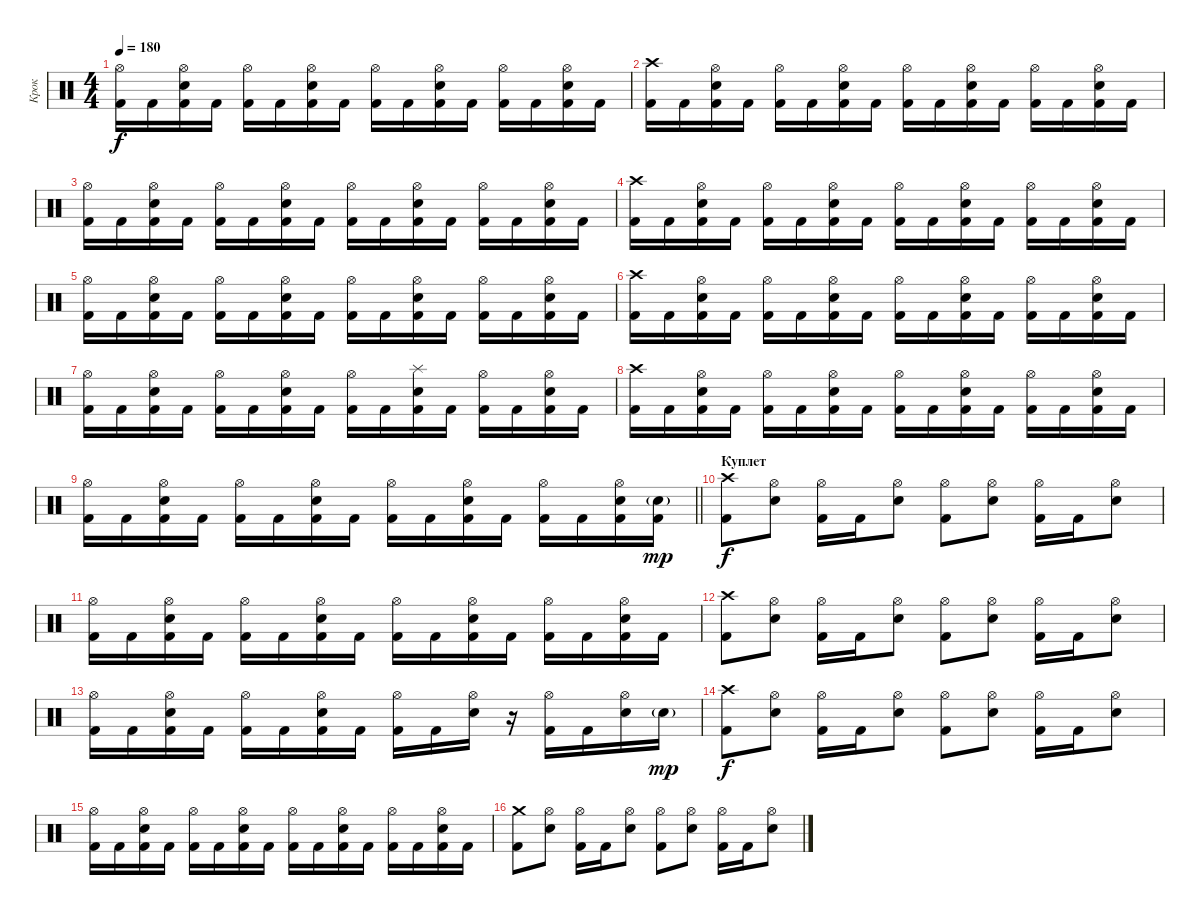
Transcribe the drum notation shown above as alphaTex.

\track ("Крок" "Крок") {instrument percussion}
\staff {score}
\articulation defaults
\ts (4 4)
\tempo 180
\clef neutral
\ks c
("Kick (hit) 2" "Hi-Hat (open)").16{dy f} "Kick (hit) 2".16 ("Kick (hit) 2" "Electric Snare (hit)" "Hi-Hat (open)").16 "Kick (hit) 2".16 ("Kick (hit) 2" "Hi-Hat (open)").16 "Kick (hit) 2".16 ("Kick (hit) 2" "Electric Snare (hit)" "Hi-Hat (open)").16 "Kick (hit) 2".16 ("Kick (hit) 2" "Hi-Hat (open)").16 "Kick (hit) 2".16 ("Kick (hit) 2" "Electric Snare (hit)" "Hi-Hat (open)").16 "Kick (hit) 2".16 ("Kick (hit) 2" "Hi-Hat (open)").16 "Kick (hit) 2".16 ("Kick (hit) 2" "Electric Snare (hit)" "Hi-Hat (open)").16 "Kick (hit) 2".16 |
("Kick (hit) 2" "Crash high (hit)").16 "Kick (hit) 2".16 ("Kick (hit) 2" "Electric Snare (hit)" "Hi-Hat (open)").16 "Kick (hit) 2".16 ("Kick (hit) 2" "Hi-Hat (open)").16 "Kick (hit) 2".16 ("Kick (hit) 2" "Electric Snare (hit)" "Hi-Hat (open)").16 "Kick (hit) 2".16 ("Kick (hit) 2" "Hi-Hat (open)").16 "Kick (hit) 2".16 ("Kick (hit) 2" "Electric Snare (hit)" "Hi-Hat (open)").16 "Kick (hit) 2".16 ("Kick (hit) 2" "Hi-Hat (open)").16 "Kick (hit) 2".16 ("Kick (hit) 2" "Electric Snare (hit)" "Hi-Hat (open)").16 "Kick (hit) 2".16 |
("Kick (hit) 2" "Hi-Hat (open)").16 "Kick (hit) 2".16 ("Kick (hit) 2" "Electric Snare (hit)" "Hi-Hat (open)").16 "Kick (hit) 2".16 ("Kick (hit) 2" "Hi-Hat (open)").16 "Kick (hit) 2".16 ("Kick (hit) 2" "Electric Snare (hit)" "Hi-Hat (open)").16 "Kick (hit) 2".16 ("Kick (hit) 2" "Hi-Hat (open)").16 "Kick (hit) 2".16 ("Kick (hit) 2" "Electric Snare (hit)" "Hi-Hat (open)").16 "Kick (hit) 2".16 ("Kick (hit) 2" "Hi-Hat (open)").16 "Kick (hit) 2".16 ("Kick (hit) 2" "Electric Snare (hit)" "Hi-Hat (open)").16 "Kick (hit) 2".16 |
("Kick (hit) 2" "Crash high (hit)").16 "Kick (hit) 2".16 ("Kick (hit) 2" "Electric Snare (hit)" "Hi-Hat (open)").16 "Kick (hit) 2".16 ("Kick (hit) 2" "Hi-Hat (open)").16 "Kick (hit) 2".16 ("Kick (hit) 2" "Electric Snare (hit)" "Hi-Hat (open)").16 "Kick (hit) 2".16 ("Kick (hit) 2" "Hi-Hat (open)").16 "Kick (hit) 2".16 ("Kick (hit) 2" "Electric Snare (hit)" "Hi-Hat (open)").16 "Kick (hit) 2".16 ("Kick (hit) 2" "Hi-Hat (open)").16 "Kick (hit) 2".16 ("Kick (hit) 2" "Electric Snare (hit)" "Hi-Hat (open)").16 "Kick (hit) 2".16 |
("Kick (hit) 2" "Hi-Hat (open)").16 "Kick (hit) 2".16 ("Kick (hit) 2" "Electric Snare (hit)" "Hi-Hat (open)").16 "Kick (hit) 2".16 ("Kick (hit) 2" "Hi-Hat (open)").16 "Kick (hit) 2".16 ("Kick (hit) 2" "Electric Snare (hit)" "Hi-Hat (open)").16 "Kick (hit) 2".16 ("Kick (hit) 2" "Hi-Hat (open)").16 "Kick (hit) 2".16 ("Kick (hit) 2" "Electric Snare (hit)" "Hi-Hat (open)").16 "Kick (hit) 2".16 ("Kick (hit) 2" "Hi-Hat (open)").16 "Kick (hit) 2".16 ("Kick (hit) 2" "Electric Snare (hit)" "Hi-Hat (open)").16 "Kick (hit) 2".16 |
("Kick (hit) 2" "Crash high (hit)").16 "Kick (hit) 2".16 ("Kick (hit) 2" "Electric Snare (hit)" "Hi-Hat (open)").16 "Kick (hit) 2".16 ("Kick (hit) 2" "Hi-Hat (open)").16 "Kick (hit) 2".16 ("Kick (hit) 2" "Electric Snare (hit)" "Hi-Hat (open)").16 "Kick (hit) 2".16 ("Kick (hit) 2" "Hi-Hat (open)").16 "Kick (hit) 2".16 ("Kick (hit) 2" "Electric Snare (hit)" "Hi-Hat (open)").16 "Kick (hit) 2".16 ("Kick (hit) 2" "Hi-Hat (open)").16 "Kick (hit) 2".16 ("Kick (hit) 2" "Electric Snare (hit)" "Hi-Hat (open)").16 "Kick (hit) 2".16 |
("Kick (hit) 2" "Hi-Hat (open)").16 "Kick (hit) 2".16 ("Kick (hit) 2" "Electric Snare (hit)" "Hi-Hat (open)").16 "Kick (hit) 2".16 ("Kick (hit) 2" "Hi-Hat (open)").16 "Kick (hit) 2".16 ("Kick (hit) 2" "Electric Snare (hit)" "Hi-Hat (open)").16 "Kick (hit) 2".16 ("Kick (hit) 2" "Hi-Hat (open)").16 "Kick (hit) 2".16 ("Kick (hit) 2" "Electric Snare (hit)" "Splash (hit)").16 "Kick (hit) 2".16 ("Kick (hit) 2" "Hi-Hat (open)").16 "Kick (hit) 2".16 ("Kick (hit) 2" "Electric Snare (hit)" "Hi-Hat (open)").16 "Kick (hit) 2".16 |
("Kick (hit) 2" "Crash high (hit)").16 "Kick (hit) 2".16 ("Kick (hit) 2" "Electric Snare (hit)" "Hi-Hat (open)").16 "Kick (hit) 2".16 ("Kick (hit) 2" "Hi-Hat (open)").16 "Kick (hit) 2".16 ("Kick (hit) 2" "Electric Snare (hit)" "Hi-Hat (open)").16 "Kick (hit) 2".16 ("Kick (hit) 2" "Hi-Hat (open)").16 "Kick (hit) 2".16 ("Kick (hit) 2" "Electric Snare (hit)" "Hi-Hat (open)").16 "Kick (hit) 2".16 ("Kick (hit) 2" "Hi-Hat (open)").16 "Kick (hit) 2".16 ("Kick (hit) 2" "Electric Snare (hit)" "Hi-Hat (open)").16 "Kick (hit) 2".16 |
\barLineRight lightlight
("Kick (hit) 2" "Hi-Hat (open)").16 "Kick (hit) 2".16 ("Kick (hit) 2" "Electric Snare (hit)" "Hi-Hat (open)").16 "Kick (hit) 2".16 ("Kick (hit) 2" "Hi-Hat (open)").16 "Kick (hit) 2".16 ("Kick (hit) 2" "Electric Snare (hit)" "Hi-Hat (open)").16 "Kick (hit) 2".16 ("Kick (hit) 2" "Hi-Hat (open)").16 "Kick (hit) 2".16 ("Kick (hit) 2" "Electric Snare (hit)" "Hi-Hat (open)").16 "Kick (hit) 2".16 ("Kick (hit) 2" "Hi-Hat (open)").16 "Kick (hit) 2".16 ("Kick (hit) 2" "Electric Snare (hit)" "Hi-Hat (open)").16 ("Kick (hit) 2" "Electric Snare (hit)"{g}).16{dy mp} |
\section ("" "Куплет")
("Kick (hit) 2" "Crash high (hit)").8{dy f} ("Electric Snare (hit)" "Hi-Hat (open)").8 ("Kick (hit) 2" "Hi-Hat (open)").16 "Kick (hit) 2".16 ("Electric Snare (hit)" "Hi-Hat (open)").8 ("Kick (hit) 2" "Hi-Hat (open)").8 ("Electric Snare (hit)" "Hi-Hat (open)").8 ("Kick (hit) 2" "Hi-Hat (open)").16 "Kick (hit) 2".16 ("Electric Snare (hit)" "Hi-Hat (open)").8 |
("Kick (hit) 2" "Hi-Hat (open)").16 "Kick (hit) 2".16 ("Kick (hit) 2" "Electric Snare (hit)" "Hi-Hat (open)").16 "Kick (hit) 2".16 ("Kick (hit) 2" "Hi-Hat (open)").16 "Kick (hit) 2".16 ("Kick (hit) 2" "Electric Snare (hit)" "Hi-Hat (open)").16 "Kick (hit) 2".16 ("Kick (hit) 2" "Hi-Hat (open)").16 "Kick (hit) 2".16 ("Kick (hit) 2" "Electric Snare (hit)" "Hi-Hat (open)").16 "Kick (hit) 2".16 ("Kick (hit) 2" "Hi-Hat (open)").16 "Kick (hit) 2".16 ("Kick (hit) 2" "Electric Snare (hit)" "Hi-Hat (open)").16 "Kick (hit) 2".16 |
("Kick (hit) 2" "Crash high (hit)").8 ("Electric Snare (hit)" "Hi-Hat (open)").8 ("Kick (hit) 2" "Hi-Hat (open)").16 "Kick (hit) 2".16 ("Electric Snare (hit)" "Hi-Hat (open)").8 ("Kick (hit) 2" "Hi-Hat (open)").8 ("Electric Snare (hit)" "Hi-Hat (open)").8 ("Kick (hit) 2" "Hi-Hat (open)").16 "Kick (hit) 2".16 ("Electric Snare (hit)" "Hi-Hat (open)").8 |
("Kick (hit) 2" "Hi-Hat (open)").16 "Kick (hit) 2".16 ("Kick (hit) 2" "Electric Snare (hit)" "Hi-Hat (open)").16 "Kick (hit) 2".16 ("Kick (hit) 2" "Hi-Hat (open)").16 "Kick (hit) 2".16 ("Kick (hit) 2" "Electric Snare (hit)" "Hi-Hat (open)").16 "Kick (hit) 2".16 ("Kick (hit) 2" "Hi-Hat (open)").16 "Kick (hit) 2".16 ("Electric Snare (hit)" "Hi-Hat (open)").16 r.16 ("Kick (hit) 2" "Hi-Hat (open)").16 "Kick (hit) 2".16 ("Electric Snare (hit)" "Hi-Hat (open)").16 "Electric Snare (hit)"{g}.16{dy mp} |
("Kick (hit) 2" "Crash high (hit)").8{dy f} ("Electric Snare (hit)" "Hi-Hat (open)").8 ("Kick (hit) 2" "Hi-Hat (open)").16 "Kick (hit) 2".16 ("Electric Snare (hit)" "Hi-Hat (open)").8 ("Kick (hit) 2" "Hi-Hat (open)").8 ("Electric Snare (hit)" "Hi-Hat (open)").8 ("Kick (hit) 2" "Hi-Hat (open)").16 "Kick (hit) 2".16 ("Electric Snare (hit)" "Hi-Hat (open)").8 |
("Kick (hit) 2" "Hi-Hat (open)").16 "Kick (hit) 2".16 ("Kick (hit) 2" "Electric Snare (hit)" "Hi-Hat (open)").16 "Kick (hit) 2".16 ("Kick (hit) 2" "Hi-Hat (open)").16 "Kick (hit) 2".16 ("Kick (hit) 2" "Electric Snare (hit)" "Hi-Hat (open)").16 "Kick (hit) 2".16 ("Kick (hit) 2" "Hi-Hat (open)").16 "Kick (hit) 2".16 ("Kick (hit) 2" "Electric Snare (hit)" "Hi-Hat (open)").16 "Kick (hit) 2".16 ("Kick (hit) 2" "Hi-Hat (open)").16 "Kick (hit) 2".16 ("Kick (hit) 2" "Electric Snare (hit)" "Hi-Hat (open)").16 "Kick (hit) 2".16 |
("Kick (hit) 2" "Crash medium (hit)").8 ("Electric Snare (hit)" "Hi-Hat (open)").8 ("Kick (hit) 2" "Hi-Hat (open)").16 "Kick (hit) 2".16 ("Electric Snare (hit)" "Hi-Hat (open)").8 ("Kick (hit) 2" "Hi-Hat (open)").8 ("Electric Snare (hit)" "Hi-Hat (open)").8 ("Kick (hit) 2" "Hi-Hat (open)").16 "Kick (hit) 2".16 ("Electric Snare (hit)" "Hi-Hat (open)").8
